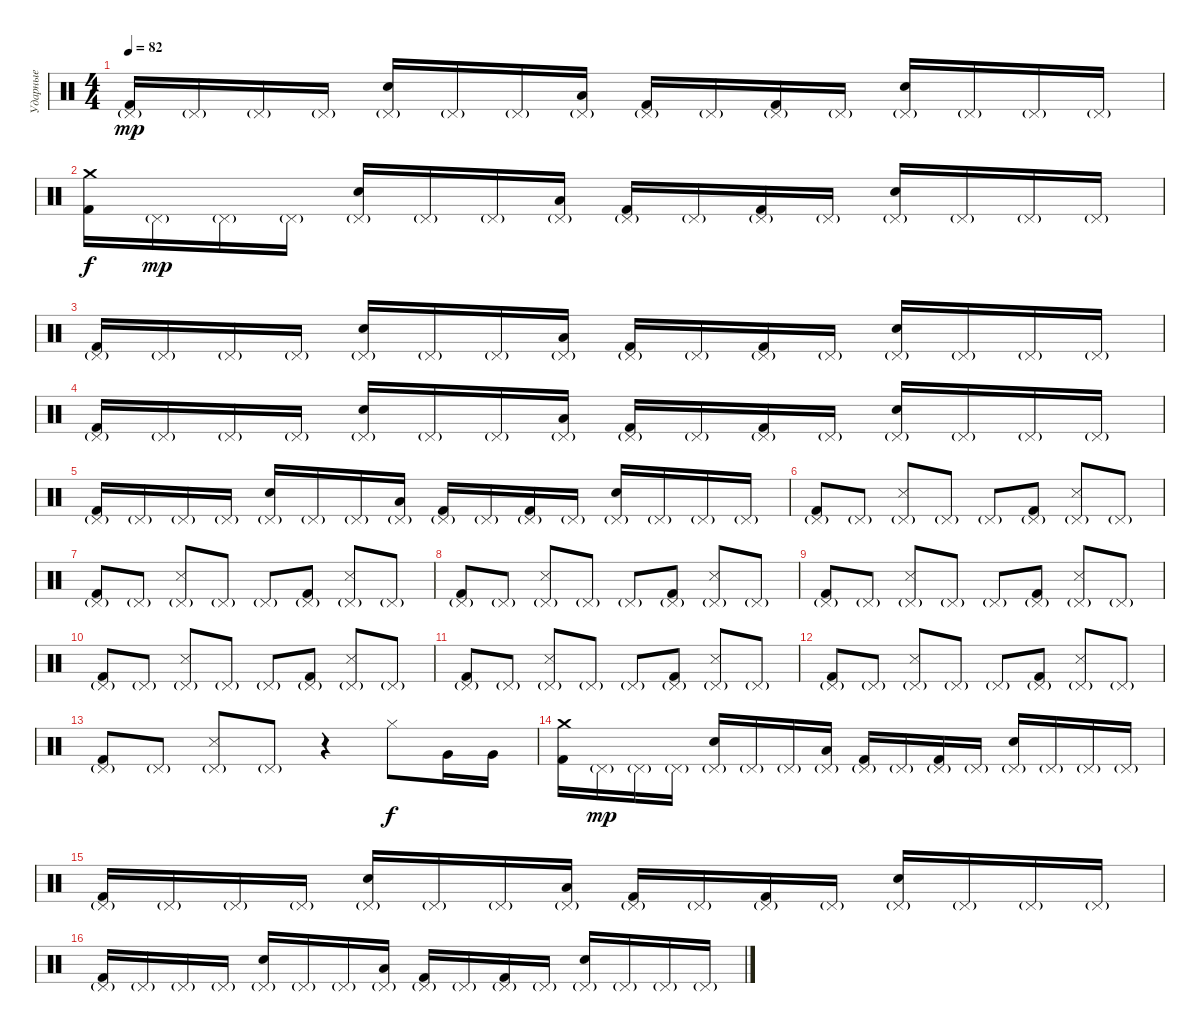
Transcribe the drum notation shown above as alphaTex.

\track ("Ударные" "Ударные") {instrument percussion}
\staff {score}
\articulation defaults
\ts (4 4)
\tempo 82
\clef neutral
\ks c
("Pedal Hi-Hat (hit)"{g} "Kick (hit) 2").16{dy mp} "Pedal Hi-Hat (hit)"{g}.16 "Pedal Hi-Hat (hit)"{g}.16 "Pedal Hi-Hat (hit)"{g}.16 ("Pedal Hi-Hat (hit)"{g} "Electric Snare (hit)").16 "Pedal Hi-Hat (hit)"{g}.16 "Pedal Hi-Hat (hit)"{g}.16 ("Pedal Hi-Hat (hit)"{g} "Low Floor Tom (hit)").16 ("Pedal Hi-Hat (hit)"{g} "Kick (hit) 2").16 "Pedal Hi-Hat (hit)"{g}.16 ("Pedal Hi-Hat (hit)"{g} "Kick (hit) 2").16 "Pedal Hi-Hat (hit)"{g}.16 ("Pedal Hi-Hat (hit)"{g} "Electric Snare (hit)").16 "Pedal Hi-Hat (hit)"{g}.16 "Pedal Hi-Hat (hit)"{g}.16 "Pedal Hi-Hat (hit)"{g}.16 |
("Crash medium (hit)" "Kick (hit) 2").16{dy f} "Pedal Hi-Hat (hit)"{g}.16{dy mp} "Pedal Hi-Hat (hit)"{g}.16 "Pedal Hi-Hat (hit)"{g}.16 ("Pedal Hi-Hat (hit)"{g} "Electric Snare (hit)").16 "Pedal Hi-Hat (hit)"{g}.16 "Pedal Hi-Hat (hit)"{g}.16 ("Pedal Hi-Hat (hit)"{g} "Low Floor Tom (hit)").16 ("Pedal Hi-Hat (hit)"{g} "Kick (hit) 2").16 "Pedal Hi-Hat (hit)"{g}.16 ("Pedal Hi-Hat (hit)"{g} "Kick (hit) 2").16 "Pedal Hi-Hat (hit)"{g}.16 ("Pedal Hi-Hat (hit)"{g} "Electric Snare (hit)").16 "Pedal Hi-Hat (hit)"{g}.16 "Pedal Hi-Hat (hit)"{g}.16 "Pedal Hi-Hat (hit)"{g}.16 |
("Pedal Hi-Hat (hit)"{g} "Kick (hit) 2").16 "Pedal Hi-Hat (hit)"{g}.16 "Pedal Hi-Hat (hit)"{g}.16 "Pedal Hi-Hat (hit)"{g}.16 ("Pedal Hi-Hat (hit)"{g} "Electric Snare (hit)").16 "Pedal Hi-Hat (hit)"{g}.16 "Pedal Hi-Hat (hit)"{g}.16 ("Pedal Hi-Hat (hit)"{g} "Low Floor Tom (hit)").16 ("Pedal Hi-Hat (hit)"{g} "Kick (hit) 2").16 "Pedal Hi-Hat (hit)"{g}.16 ("Pedal Hi-Hat (hit)"{g} "Kick (hit) 2").16 "Pedal Hi-Hat (hit)"{g}.16 ("Pedal Hi-Hat (hit)"{g} "Electric Snare (hit)").16 "Pedal Hi-Hat (hit)"{g}.16 "Pedal Hi-Hat (hit)"{g}.16 "Pedal Hi-Hat (hit)"{g}.16 |
("Pedal Hi-Hat (hit)"{g} "Kick (hit) 2").16 "Pedal Hi-Hat (hit)"{g}.16 "Pedal Hi-Hat (hit)"{g}.16 "Pedal Hi-Hat (hit)"{g}.16 ("Pedal Hi-Hat (hit)"{g} "Electric Snare (hit)").16 "Pedal Hi-Hat (hit)"{g}.16 "Pedal Hi-Hat (hit)"{g}.16 ("Pedal Hi-Hat (hit)"{g} "Low Floor Tom (hit)").16 ("Pedal Hi-Hat (hit)"{g} "Kick (hit) 2").16 "Pedal Hi-Hat (hit)"{g}.16 ("Pedal Hi-Hat (hit)"{g} "Kick (hit) 2").16 "Pedal Hi-Hat (hit)"{g}.16 ("Pedal Hi-Hat (hit)"{g} "Electric Snare (hit)").16 "Pedal Hi-Hat (hit)"{g}.16 "Pedal Hi-Hat (hit)"{g}.16 "Pedal Hi-Hat (hit)"{g}.16 |
("Pedal Hi-Hat (hit)"{g} "Kick (hit) 2").16 "Pedal Hi-Hat (hit)"{g}.16 "Pedal Hi-Hat (hit)"{g}.16 "Pedal Hi-Hat (hit)"{g}.16 ("Pedal Hi-Hat (hit)"{g} "Electric Snare (hit)").16 "Pedal Hi-Hat (hit)"{g}.16 "Pedal Hi-Hat (hit)"{g}.16 ("Pedal Hi-Hat (hit)"{g} "Low Floor Tom (hit)").16 ("Pedal Hi-Hat (hit)"{g} "Kick (hit) 2").16 "Pedal Hi-Hat (hit)"{g}.16 ("Pedal Hi-Hat (hit)"{g} "Kick (hit) 2").16 "Pedal Hi-Hat (hit)"{g}.16 ("Pedal Hi-Hat (hit)"{g} "Electric Snare (hit)").16 "Pedal Hi-Hat (hit)"{g}.16 "Pedal Hi-Hat (hit)"{g}.16 "Pedal Hi-Hat (hit)"{g}.16 |
("Pedal Hi-Hat (hit)"{g} "Kick (hit) 2").8 "Pedal Hi-Hat (hit)"{g}.8 ("Pedal Hi-Hat (hit)"{g} "Snare (side stick) 3").8 "Pedal Hi-Hat (hit)"{g}.8 "Pedal Hi-Hat (hit)"{g}.8 ("Pedal Hi-Hat (hit)"{g} "Kick (hit) 2").8 ("Pedal Hi-Hat (hit)"{g} "Snare (side stick) 3").8 "Pedal Hi-Hat (hit)"{g}.8 |
("Pedal Hi-Hat (hit)"{g} "Kick (hit) 2").8 "Pedal Hi-Hat (hit)"{g}.8 ("Pedal Hi-Hat (hit)"{g} "Snare (side stick) 3").8 "Pedal Hi-Hat (hit)"{g}.8 "Pedal Hi-Hat (hit)"{g}.8 ("Pedal Hi-Hat (hit)"{g} "Kick (hit) 2").8 ("Pedal Hi-Hat (hit)"{g} "Snare (side stick) 3").8 "Pedal Hi-Hat (hit)"{g}.8 |
("Pedal Hi-Hat (hit)"{g} "Kick (hit) 2").8 "Pedal Hi-Hat (hit)"{g}.8 ("Pedal Hi-Hat (hit)"{g} "Snare (side stick) 3").8 "Pedal Hi-Hat (hit)"{g}.8 "Pedal Hi-Hat (hit)"{g}.8 ("Pedal Hi-Hat (hit)"{g} "Kick (hit) 2").8 ("Pedal Hi-Hat (hit)"{g} "Snare (side stick) 3").8 "Pedal Hi-Hat (hit)"{g}.8 |
("Pedal Hi-Hat (hit)"{g} "Kick (hit) 2").8 "Pedal Hi-Hat (hit)"{g}.8 ("Pedal Hi-Hat (hit)"{g} "Snare (side stick) 3").8 "Pedal Hi-Hat (hit)"{g}.8 "Pedal Hi-Hat (hit)"{g}.8 ("Pedal Hi-Hat (hit)"{g} "Kick (hit) 2").8 ("Pedal Hi-Hat (hit)"{g} "Snare (side stick) 3").8 "Pedal Hi-Hat (hit)"{g}.8 |
("Pedal Hi-Hat (hit)"{g} "Kick (hit) 2").8 "Pedal Hi-Hat (hit)"{g}.8 ("Pedal Hi-Hat (hit)"{g} "Snare (side stick) 3").8 "Pedal Hi-Hat (hit)"{g}.8 "Pedal Hi-Hat (hit)"{g}.8 ("Pedal Hi-Hat (hit)"{g} "Kick (hit) 2").8 ("Pedal Hi-Hat (hit)"{g} "Snare (side stick) 3").8 "Pedal Hi-Hat (hit)"{g}.8 |
("Pedal Hi-Hat (hit)"{g} "Kick (hit) 2").8 "Pedal Hi-Hat (hit)"{g}.8 ("Pedal Hi-Hat (hit)"{g} "Snare (side stick) 3").8 "Pedal Hi-Hat (hit)"{g}.8 "Pedal Hi-Hat (hit)"{g}.8 ("Pedal Hi-Hat (hit)"{g} "Kick (hit) 2").8 ("Pedal Hi-Hat (hit)"{g} "Snare (side stick) 3").8 "Pedal Hi-Hat (hit)"{g}.8 |
("Pedal Hi-Hat (hit)"{g} "Kick (hit) 2").8 "Pedal Hi-Hat (hit)"{g}.8 ("Pedal Hi-Hat (hit)"{g} "Snare (side stick) 3").8 "Pedal Hi-Hat (hit)"{g}.8 "Pedal Hi-Hat (hit)"{g}.8 ("Pedal Hi-Hat (hit)"{g} "Kick (hit) 2").8 ("Pedal Hi-Hat (hit)"{g} "Snare (side stick) 3").8 "Pedal Hi-Hat (hit)"{g}.8 |
("Pedal Hi-Hat (hit)"{g} "Kick (hit) 2").8 "Pedal Hi-Hat (hit)"{g}.8 ("Pedal Hi-Hat (hit)"{g} "Snare (side stick) 3").8 "Pedal Hi-Hat (hit)"{g}.8 r.4 "Hi-Hat (closed)".8{dy f} "Very Low Tom (hit)".16 "Very Low Tom (hit)".16 |
("Crash medium (hit)" "Kick (hit) 2").16 "Pedal Hi-Hat (hit)"{g}.16{dy mp} "Pedal Hi-Hat (hit)"{g}.16 "Pedal Hi-Hat (hit)"{g}.16 ("Pedal Hi-Hat (hit)"{g} "Electric Snare (hit)").16 "Pedal Hi-Hat (hit)"{g}.16 "Pedal Hi-Hat (hit)"{g}.16 ("Pedal Hi-Hat (hit)"{g} "Low Floor Tom (hit)").16 ("Pedal Hi-Hat (hit)"{g} "Kick (hit) 2").16 "Pedal Hi-Hat (hit)"{g}.16 ("Pedal Hi-Hat (hit)"{g} "Kick (hit) 2").16 "Pedal Hi-Hat (hit)"{g}.16 ("Pedal Hi-Hat (hit)"{g} "Electric Snare (hit)").16 "Pedal Hi-Hat (hit)"{g}.16 "Pedal Hi-Hat (hit)"{g}.16 "Pedal Hi-Hat (hit)"{g}.16 |
("Pedal Hi-Hat (hit)"{g} "Kick (hit) 2").16 "Pedal Hi-Hat (hit)"{g}.16 "Pedal Hi-Hat (hit)"{g}.16 "Pedal Hi-Hat (hit)"{g}.16 ("Pedal Hi-Hat (hit)"{g} "Electric Snare (hit)").16 "Pedal Hi-Hat (hit)"{g}.16 "Pedal Hi-Hat (hit)"{g}.16 ("Pedal Hi-Hat (hit)"{g} "Low Floor Tom (hit)").16 ("Pedal Hi-Hat (hit)"{g} "Kick (hit) 2").16 "Pedal Hi-Hat (hit)"{g}.16 ("Pedal Hi-Hat (hit)"{g} "Kick (hit) 2").16 "Pedal Hi-Hat (hit)"{g}.16 ("Pedal Hi-Hat (hit)"{g} "Electric Snare (hit)").16 "Pedal Hi-Hat (hit)"{g}.16 "Pedal Hi-Hat (hit)"{g}.16 "Pedal Hi-Hat (hit)"{g}.16 |
("Pedal Hi-Hat (hit)"{g} "Kick (hit) 2").16 "Pedal Hi-Hat (hit)"{g}.16 "Pedal Hi-Hat (hit)"{g}.16 "Pedal Hi-Hat (hit)"{g}.16 ("Pedal Hi-Hat (hit)"{g} "Electric Snare (hit)").16 "Pedal Hi-Hat (hit)"{g}.16 "Pedal Hi-Hat (hit)"{g}.16 ("Pedal Hi-Hat (hit)"{g} "Low Floor Tom (hit)").16 ("Pedal Hi-Hat (hit)"{g} "Kick (hit) 2").16 "Pedal Hi-Hat (hit)"{g}.16 ("Pedal Hi-Hat (hit)"{g} "Kick (hit) 2").16 "Pedal Hi-Hat (hit)"{g}.16 ("Pedal Hi-Hat (hit)"{g} "Electric Snare (hit)").16 "Pedal Hi-Hat (hit)"{g}.16 "Pedal Hi-Hat (hit)"{g}.16 "Pedal Hi-Hat (hit)"{g}.16
